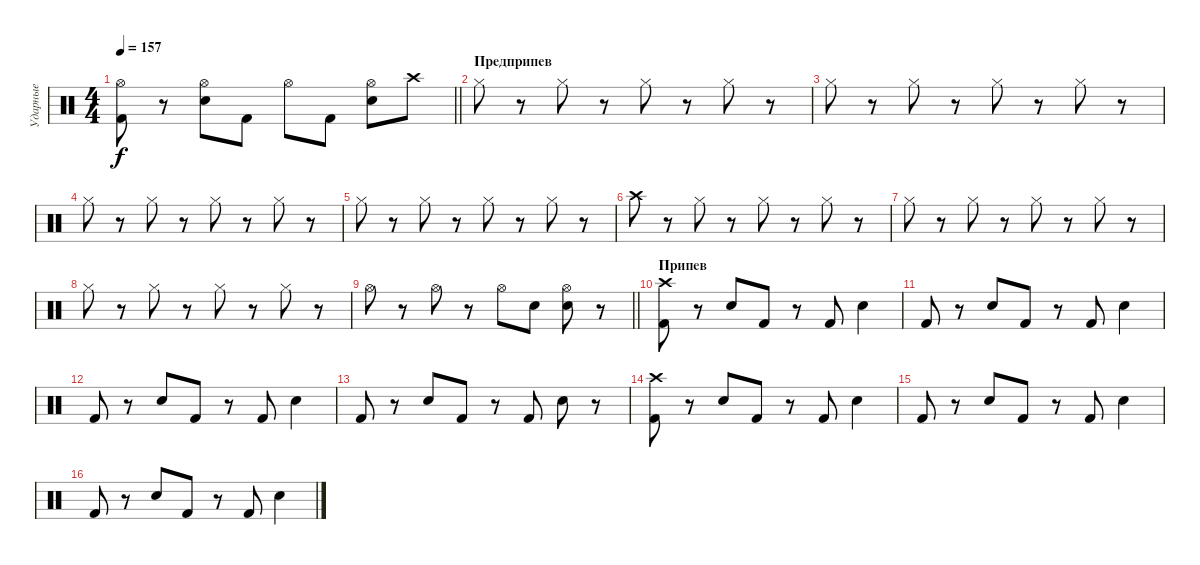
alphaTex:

\track ("Ударные" "Ударные") {instrument percussion}
\staff {score}
\articulation defaults
\ts (4 4)
\tempo 157
\clef neutral
\barLineRight lightlight
\ks c
("Hi-Hat (open)" "Kick (hit) 2").8{dy f} r.8 ("Hi-Hat (open)" "Snare (hit) 2").8 "Kick (hit) 2".8 "Hi-Hat (open)".8 "Kick (hit) 2".8 ("Hi-Hat (open)" "Snare (hit) 2").8 "Crash high (hit)".8 |
\section ("" "Предприпев")
"Hi-Hat (closed)".8 r.8 "Hi-Hat (closed)".8 r.8 "Hi-Hat (closed)".8 r.8 "Hi-Hat (closed)".8 r.8 |
"Hi-Hat (closed)".8 r.8 "Hi-Hat (closed)".8 r.8 "Hi-Hat (closed)".8 r.8 "Hi-Hat (closed)".8 r.8 |
"Hi-Hat (closed)".8 r.8 "Hi-Hat (closed)".8 r.8 "Hi-Hat (closed)".8 r.8 "Hi-Hat (closed)".8 r.8 |
"Hi-Hat (closed)".8 r.8 "Hi-Hat (closed)".8 r.8 "Hi-Hat (closed)".8 r.8 "Hi-Hat (closed)".8 r.8 |
"Crash high (hit)".8 r.8 "Hi-Hat (closed)".8 r.8 "Hi-Hat (closed)".8 r.8 "Hi-Hat (closed)".8 r.8 |
"Hi-Hat (closed)".8 r.8 "Hi-Hat (closed)".8 r.8 "Hi-Hat (closed)".8 r.8 "Hi-Hat (closed)".8 r.8 |
"Hi-Hat (closed)".8 r.8 "Hi-Hat (closed)".8 r.8 "Hi-Hat (closed)".8 r.8 "Hi-Hat (closed)".8 r.8 |
\barLineRight lightlight "Hi-Hat (open)".8
r.8 "Hi-Hat (open)".8 r.8 "Hi-Hat (open)".8 "Snare (hit) 2".8 ("Hi-Hat (open)" "Snare (hit) 2").8 r.8 |
\section ("" "Припев")
("Crash high (hit)" "Kick (hit) 2").8 r.8 "Snare (hit) 2".8 "Kick (hit) 2".8 r.8 "Kick (hit) 2".8 "Snare (hit) 2".4 |
"Kick (hit) 2".8 r.8 "Snare (hit) 2".8 "Kick (hit) 2".8 r.8 "Kick (hit) 2".8 "Snare (hit) 2".4 |
"Kick (hit) 2".8 r.8 "Snare (hit) 2".8 "Kick (hit) 2".8 r.8 "Kick (hit) 2".8 "Snare (hit) 2".4 |
"Kick (hit) 2".8 r.8 "Snare (hit) 2".8 "Kick (hit) 2".8 r.8 "Kick (hit) 2".8 "Snare (hit) 2".8 r.8 |
("Crash high (hit)" "Kick (hit) 2").8 r.8 "Snare (hit) 2".8 "Kick (hit) 2".8 r.8 "Kick (hit) 2".8 "Snare (hit) 2".4 |
"Kick (hit) 2".8 r.8 "Snare (hit) 2".8 "Kick (hit) 2".8 r.8 "Kick (hit) 2".8 "Snare (hit) 2".4 |
"Kick (hit) 2".8 r.8 "Snare (hit) 2".8 "Kick (hit) 2".8 r.8 "Kick (hit) 2".8 "Snare (hit) 2".4
